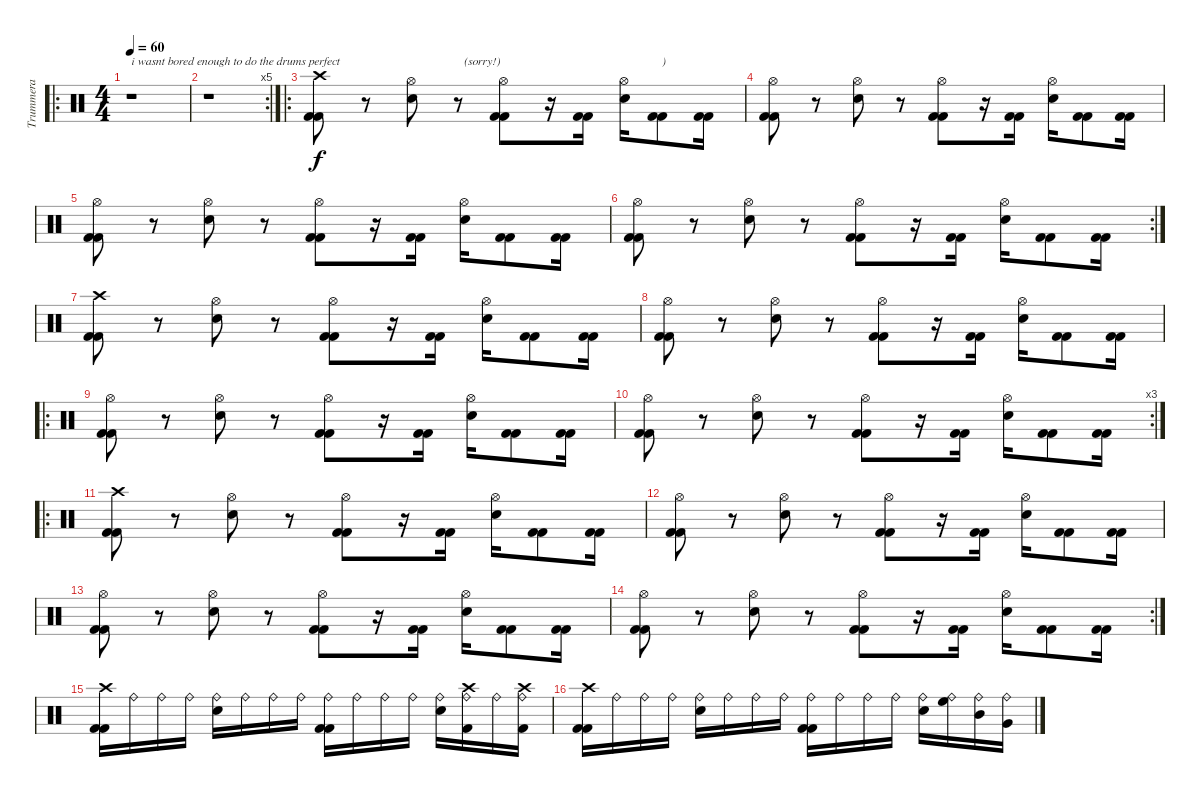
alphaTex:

\track ("Trummera" "Trummera") {instrument percussion}
\staff {score}
\articulation defaults
\ro
\ts (4 4)
\tempo 60
\clef neutral
\ks c
r.1{txt "i wasnt bored enough to do the drums perfect" dy f} |
\rc 5
r.1 |
\ro
("Crash high (hit)" "Kick (hit) 2" "Kick (hit) 2").8 r.8 ("Hi-Hat (open)" "Electric Snare (hit)").8 r.8{txt "  (sorry!)"} ("Hi-Hat (open)" "Kick (hit) 2" "Kick (hit) 2").8 r.16 ("Kick (hit) 2" "Kick (hit) 2").16 ("Hi-Hat (open)" "Electric Snare (hit)").16 ("Kick (hit) 2" "Kick (hit) 2").8{txt ")"} ("Kick (hit) 2" "Kick (hit) 2").16 |
("Hi-Hat (open)" "Kick (hit) 2" "Kick (hit) 2").8 r.8 ("Hi-Hat (open)" "Electric Snare (hit)").8 r.8 ("Hi-Hat (open)" "Kick (hit) 2" "Kick (hit) 2").8 r.16 ("Kick (hit) 2" "Kick (hit) 2").16 ("Hi-Hat (open)" "Electric Snare (hit)").16 ("Kick (hit) 2" "Kick (hit) 2").8 ("Kick (hit) 2" "Kick (hit) 2").16 |
("Hi-Hat (open)" "Kick (hit) 2" "Kick (hit) 2").8 r.8 ("Hi-Hat (open)" "Electric Snare (hit)").8 r.8 ("Hi-Hat (open)" "Kick (hit) 2" "Kick (hit) 2").8 r.16 ("Kick (hit) 2" "Kick (hit) 2").16 ("Hi-Hat (open)" "Electric Snare (hit)").16 ("Kick (hit) 2" "Kick (hit) 2").8 ("Kick (hit) 2" "Kick (hit) 2").16 |
\rc 2
("Hi-Hat (open)" "Kick (hit) 2" "Kick (hit) 2").8 r.8 ("Hi-Hat (open)" "Electric Snare (hit)").8 r.8 ("Hi-Hat (open)" "Kick (hit) 2" "Kick (hit) 2").8 r.16 ("Kick (hit) 2" "Kick (hit) 2").16 ("Hi-Hat (open)" "Electric Snare (hit)").16 ("Kick (hit) 2" "Kick (hit) 2").8 ("Kick (hit) 2" "Kick (hit) 2").16 |
("Crash high (hit)" "Kick (hit) 2" "Kick (hit) 2").8 r.8 ("Hi-Hat (open)" "Electric Snare (hit)").8 r.8 ("Hi-Hat (open)" "Kick (hit) 2" "Kick (hit) 2").8 r.16 ("Kick (hit) 2" "Kick (hit) 2").16 ("Hi-Hat (open)" "Electric Snare (hit)").16 ("Kick (hit) 2" "Kick (hit) 2").8 ("Kick (hit) 2" "Kick (hit) 2").16 |
("Hi-Hat (open)" "Kick (hit) 2" "Kick (hit) 2").8 r.8 ("Hi-Hat (open)" "Electric Snare (hit)").8 r.8 ("Hi-Hat (open)" "Kick (hit) 2" "Kick (hit) 2").8 r.16 ("Kick (hit) 2" "Kick (hit) 2").16 ("Hi-Hat (open)" "Electric Snare (hit)").16 ("Kick (hit) 2" "Kick (hit) 2").8 ("Kick (hit) 2" "Kick (hit) 2").16 |
\ro
("Hi-Hat (open)" "Kick (hit) 2" "Kick (hit) 2").8 r.8 ("Hi-Hat (open)" "Electric Snare (hit)").8 r.8 ("Hi-Hat (open)" "Kick (hit) 2" "Kick (hit) 2").8 r.16 ("Kick (hit) 2" "Kick (hit) 2").16 ("Hi-Hat (open)" "Electric Snare (hit)").16 ("Kick (hit) 2" "Kick (hit) 2").8 ("Kick (hit) 2" "Kick (hit) 2").16 |
\rc 3
("Hi-Hat (open)" "Kick (hit) 2" "Kick (hit) 2").8 r.8 ("Hi-Hat (open)" "Electric Snare (hit)").8 r.8 ("Hi-Hat (open)" "Kick (hit) 2" "Kick (hit) 2").8 r.16 ("Kick (hit) 2" "Kick (hit) 2").16 ("Hi-Hat (open)" "Electric Snare (hit)").16 ("Kick (hit) 2" "Kick (hit) 2").8 ("Kick (hit) 2" "Kick (hit) 2").16 |
\ro
("Crash high (hit)" "Kick (hit) 2" "Kick (hit) 2").8 r.8 ("Hi-Hat (open)" "Electric Snare (hit)").8 r.8 ("Hi-Hat (open)" "Kick (hit) 2" "Kick (hit) 2").8 r.16 ("Kick (hit) 2" "Kick (hit) 2").16 ("Hi-Hat (open)" "Electric Snare (hit)").16 ("Kick (hit) 2" "Kick (hit) 2").8 ("Kick (hit) 2" "Kick (hit) 2").16 |
("Hi-Hat (open)" "Kick (hit) 2" "Kick (hit) 2").8 r.8 ("Hi-Hat (open)" "Electric Snare (hit)").8 r.8 ("Hi-Hat (open)" "Kick (hit) 2" "Kick (hit) 2").8 r.16 ("Kick (hit) 2" "Kick (hit) 2").16 ("Hi-Hat (open)" "Electric Snare (hit)").16 ("Kick (hit) 2" "Kick (hit) 2").8 ("Kick (hit) 2" "Kick (hit) 2").16 |
("Hi-Hat (open)" "Kick (hit) 2" "Kick (hit) 2").8 r.8 ("Hi-Hat (open)" "Electric Snare (hit)").8 r.8 ("Hi-Hat (open)" "Kick (hit) 2" "Kick (hit) 2").8 r.16 ("Kick (hit) 2" "Kick (hit) 2").16 ("Hi-Hat (open)" "Electric Snare (hit)").16 ("Kick (hit) 2" "Kick (hit) 2").8 ("Kick (hit) 2" "Kick (hit) 2").16 |
\rc 2
("Hi-Hat (open)" "Kick (hit) 2" "Kick (hit) 2").8 r.8 ("Hi-Hat (open)" "Electric Snare (hit)").8 r.8 ("Hi-Hat (open)" "Kick (hit) 2" "Kick (hit) 2").8 r.16 ("Kick (hit) 2" "Kick (hit) 2").16 ("Hi-Hat (open)" "Electric Snare (hit)").16 ("Kick (hit) 2" "Kick (hit) 2").8 ("Kick (hit) 2" "Kick (hit) 2").16 |
("Crash high (hit)" "Kick (hit) 2" "Kick (hit) 2").16 "Ride (bell)".16 "Ride (bell)".16 "Ride (bell)".16 ("Ride (bell)" "Electric Snare (hit)").16 "Ride (bell)".16 "Ride (bell)".16 "Ride (bell)".16 ("Ride (bell)" "Kick (hit) 2" "Kick (hit) 2").16 "Ride (bell)".16 "Ride (bell)".16 "Ride (bell)".16 ("Ride (bell)" "Electric Snare (hit)").16 ("Crash high (hit)" "Ride (bell)" "Kick (hit) 2").16 "Ride (bell)".16 ("Crash high (hit)" "Ride (bell)" "Kick (hit) 2").16 |
("Crash high (hit)" "Kick (hit) 2" "Kick (hit) 2").16 "Ride (bell)".16 "Ride (bell)".16 "Ride (bell)".16 ("Ride (bell)" "Electric Snare (hit)").16 "Ride (bell)".16 "Ride (bell)".16 "Ride (bell)".16 ("Ride (bell)" "Kick (hit) 2" "Kick (hit) 2").16 "Ride (bell)".16 "Ride (bell)".16 "Ride (bell)".16 ("Ride (bell)" "Electric Snare (hit)").16 ("Ride (bell)" "High Floor Tom (hit)").16 ("Ride (bell)" "Mid Tom (hit)").16 ("Ride (bell)" "Very Low Tom (hit)").16
